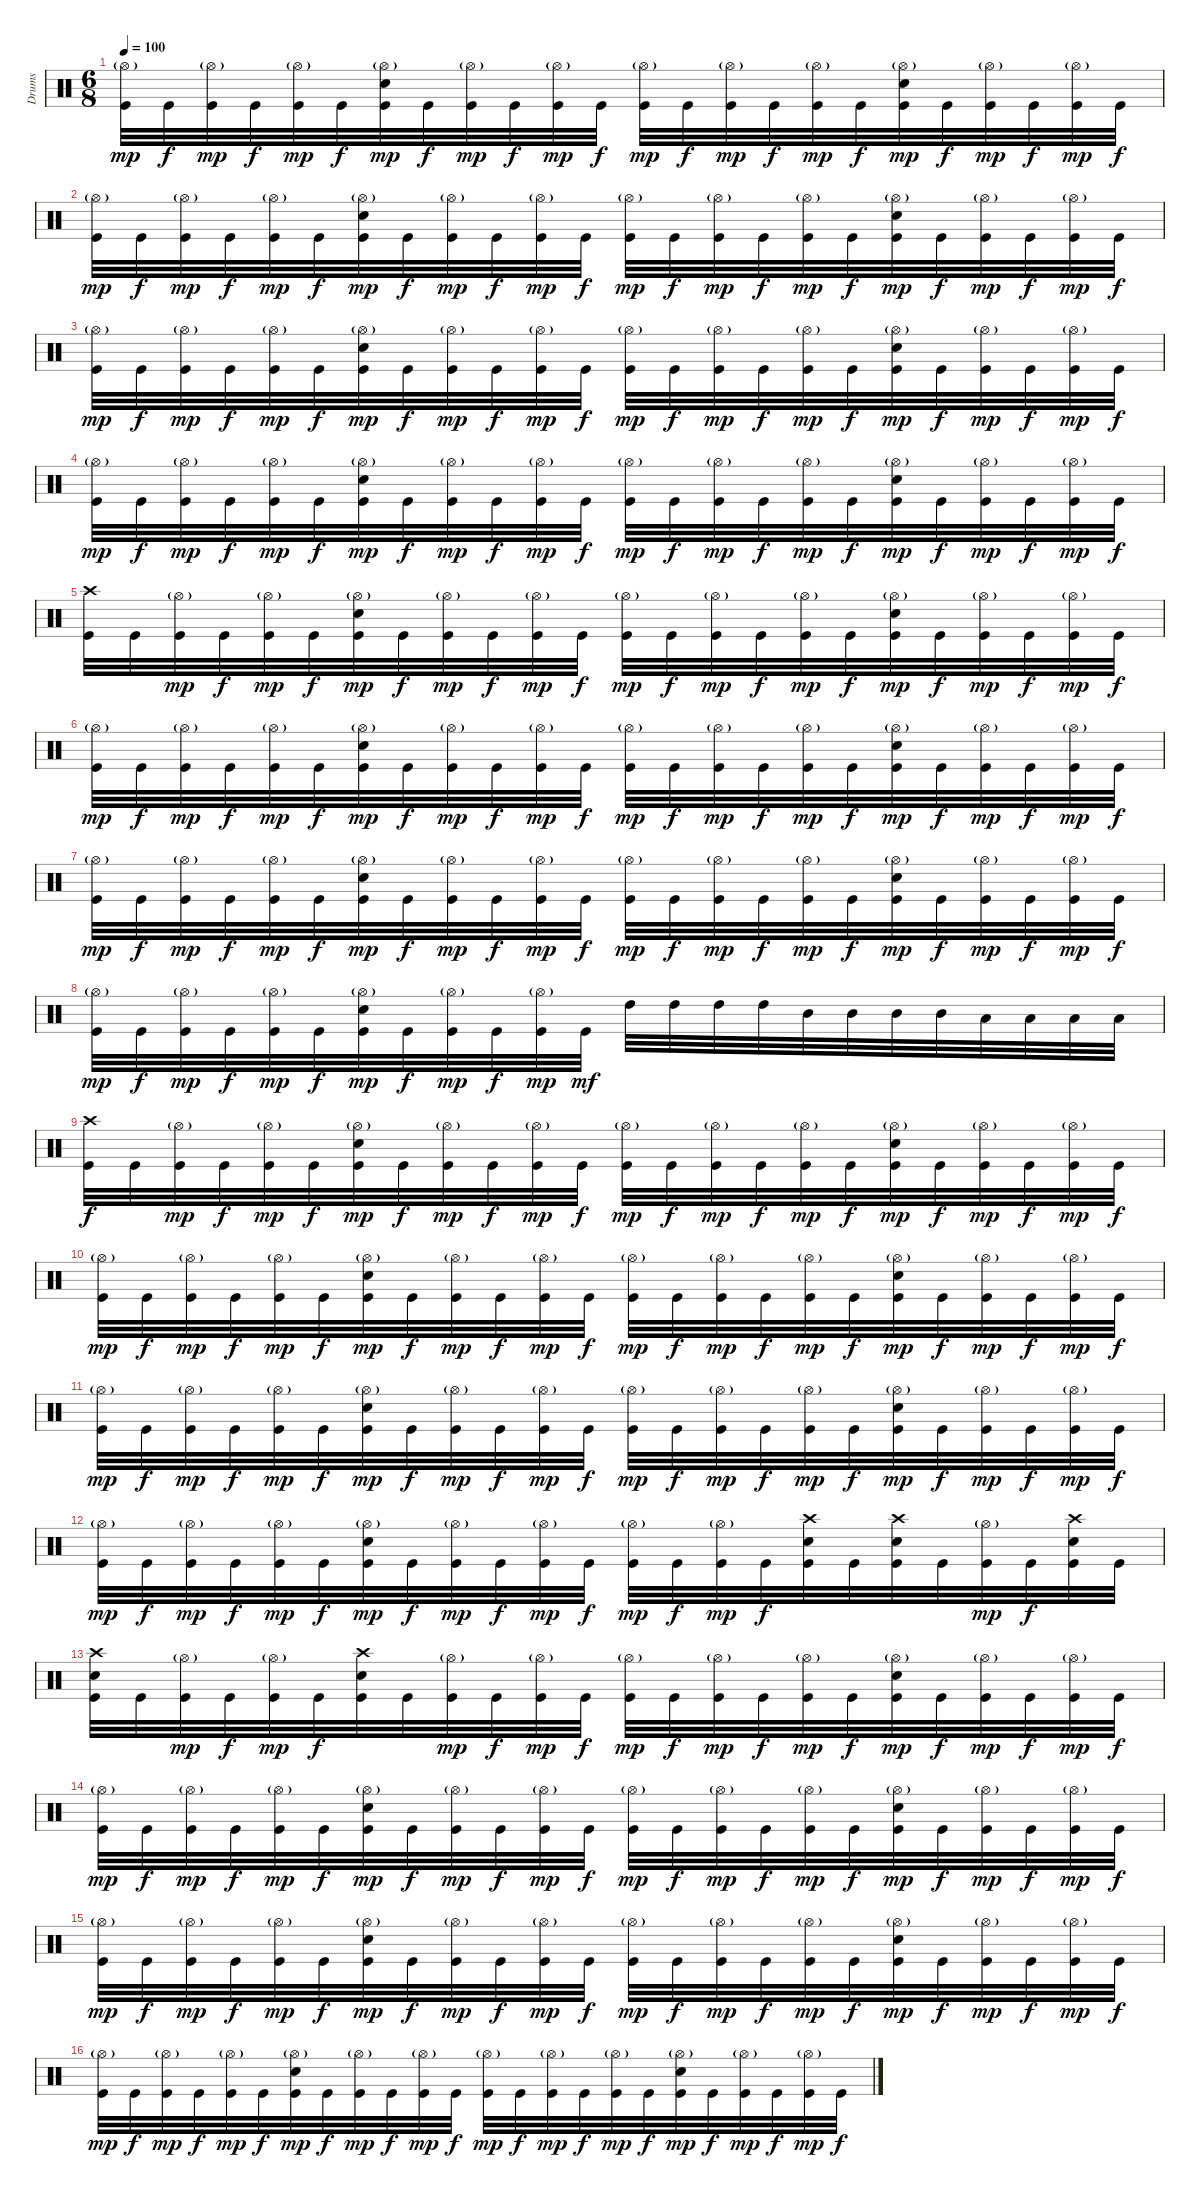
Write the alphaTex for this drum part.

\track ("Drums" "Drums") {instrument percussion}
\staff {score}
\articulation defaults
\ts (6 8)
\tempo 100
\clef neutral
\ks c
("Hi-Hat (open)"{g} "Kick (hit)").32{dy mp volume 13} "Kick (hit)".32{dy f} ("Hi-Hat (open)"{g} "Kick (hit)").32{dy mp} "Kick (hit)".32{dy f} ("Hi-Hat (open)"{g} "Kick (hit)").32{dy mp} "Kick (hit)".32{dy f} ("Hi-Hat (open)"{g} "Electric Snare (hit)" "Kick (hit)").32{dy mp} "Kick (hit)".32{dy f} ("Hi-Hat (open)"{g} "Kick (hit)").32{dy mp} "Kick (hit)".32{dy f} ("Hi-Hat (open)"{g} "Kick (hit)").32{dy mp} "Kick (hit)".32{dy f} ("Hi-Hat (open)"{g} "Kick (hit)").32{dy mp} "Kick (hit)".32{dy f} ("Hi-Hat (open)"{g} "Kick (hit)").32{dy mp} "Kick (hit)".32{dy f} ("Hi-Hat (open)"{g} "Kick (hit)").32{dy mp} "Kick (hit)".32{dy f} ("Hi-Hat (open)"{g} "Electric Snare (hit)" "Kick (hit)").32{dy mp} "Kick (hit)".32{dy f} ("Hi-Hat (open)"{g} "Kick (hit)").32{dy mp} "Kick (hit)".32{dy f} ("Hi-Hat (open)"{g} "Kick (hit)").32{dy mp} "Kick (hit)".32{dy f} |
("Hi-Hat (open)"{g} "Kick (hit)").32{dy mp} "Kick (hit)".32{dy f} ("Hi-Hat (open)"{g} "Kick (hit)").32{dy mp} "Kick (hit)".32{dy f} ("Hi-Hat (open)"{g} "Kick (hit)").32{dy mp} "Kick (hit)".32{dy f} ("Hi-Hat (open)"{g} "Electric Snare (hit)" "Kick (hit)").32{dy mp} "Kick (hit)".32{dy f} ("Hi-Hat (open)"{g} "Kick (hit)").32{dy mp} "Kick (hit)".32{dy f} ("Hi-Hat (open)"{g} "Kick (hit)").32{dy mp} "Kick (hit)".32{dy f} ("Hi-Hat (open)"{g} "Kick (hit)").32{dy mp} "Kick (hit)".32{dy f} ("Hi-Hat (open)"{g} "Kick (hit)").32{dy mp} "Kick (hit)".32{dy f} ("Hi-Hat (open)"{g} "Kick (hit)").32{dy mp} "Kick (hit)".32{dy f} ("Hi-Hat (open)"{g} "Electric Snare (hit)" "Kick (hit)").32{dy mp} "Kick (hit)".32{dy f} ("Hi-Hat (open)"{g} "Kick (hit)").32{dy mp} "Kick (hit)".32{dy f} ("Hi-Hat (open)"{g} "Kick (hit)").32{dy mp} "Kick (hit)".32{dy f} |
("Hi-Hat (open)"{g} "Kick (hit)").32{dy mp} "Kick (hit)".32{dy f} ("Hi-Hat (open)"{g} "Kick (hit)").32{dy mp} "Kick (hit)".32{dy f} ("Hi-Hat (open)"{g} "Kick (hit)").32{dy mp} "Kick (hit)".32{dy f} ("Hi-Hat (open)"{g} "Electric Snare (hit)" "Kick (hit)").32{dy mp} "Kick (hit)".32{dy f} ("Hi-Hat (open)"{g} "Kick (hit)").32{dy mp} "Kick (hit)".32{dy f} ("Hi-Hat (open)"{g} "Kick (hit)").32{dy mp} "Kick (hit)".32{dy f} ("Hi-Hat (open)"{g} "Kick (hit)").32{dy mp} "Kick (hit)".32{dy f} ("Hi-Hat (open)"{g} "Kick (hit)").32{dy mp} "Kick (hit)".32{dy f} ("Hi-Hat (open)"{g} "Kick (hit)").32{dy mp} "Kick (hit)".32{dy f} ("Hi-Hat (open)"{g} "Electric Snare (hit)" "Kick (hit)").32{dy mp} "Kick (hit)".32{dy f} ("Hi-Hat (open)"{g} "Kick (hit)").32{dy mp} "Kick (hit)".32{dy f} ("Hi-Hat (open)"{g} "Kick (hit)").32{dy mp} "Kick (hit)".32{dy f} |
("Hi-Hat (open)"{g} "Kick (hit)").32{dy mp} "Kick (hit)".32{dy f} ("Hi-Hat (open)"{g} "Kick (hit)").32{dy mp} "Kick (hit)".32{dy f} ("Hi-Hat (open)"{g} "Kick (hit)").32{dy mp} "Kick (hit)".32{dy f} ("Hi-Hat (open)"{g} "Electric Snare (hit)" "Kick (hit)").32{dy mp} "Kick (hit)".32{dy f} ("Hi-Hat (open)"{g} "Kick (hit)").32{dy mp} "Kick (hit)".32{dy f} ("Hi-Hat (open)"{g} "Kick (hit)").32{dy mp} "Kick (hit)".32{dy f} ("Hi-Hat (open)"{g} "Kick (hit)").32{dy mp} "Kick (hit)".32{dy f} ("Hi-Hat (open)"{g} "Kick (hit)").32{dy mp} "Kick (hit)".32{dy f} ("Hi-Hat (open)"{g} "Kick (hit)").32{dy mp} "Kick (hit)".32{dy f} ("Hi-Hat (open)"{g} "Electric Snare (hit)" "Kick (hit)").32{dy mp} "Kick (hit)".32{dy f} ("Hi-Hat (open)"{g} "Kick (hit)").32{dy mp} "Kick (hit)".32{dy f} ("Hi-Hat (open)"{g} "Kick (hit)").32{dy mp} "Kick (hit)".32{dy f} |
("Crash high (hit)" "Kick (hit)").32 "Kick (hit)".32 ("Hi-Hat (open)"{g} "Kick (hit)").32{dy mp} "Kick (hit)".32{dy f} ("Hi-Hat (open)"{g} "Kick (hit)").32{dy mp} "Kick (hit)".32{dy f} ("Hi-Hat (open)"{g} "Electric Snare (hit)" "Kick (hit)").32{dy mp} "Kick (hit)".32{dy f} ("Hi-Hat (open)"{g} "Kick (hit)").32{dy mp} "Kick (hit)".32{dy f} ("Hi-Hat (open)"{g} "Kick (hit)").32{dy mp} "Kick (hit)".32{dy f} ("Hi-Hat (open)"{g} "Kick (hit)").32{dy mp} "Kick (hit)".32{dy f} ("Hi-Hat (open)"{g} "Kick (hit)").32{dy mp} "Kick (hit)".32{dy f} ("Hi-Hat (open)"{g} "Kick (hit)").32{dy mp} "Kick (hit)".32{dy f} ("Hi-Hat (open)"{g} "Electric Snare (hit)" "Kick (hit)").32{dy mp} "Kick (hit)".32{dy f} ("Hi-Hat (open)"{g} "Kick (hit)").32{dy mp} "Kick (hit)".32{dy f} ("Hi-Hat (open)"{g} "Kick (hit)").32{dy mp} "Kick (hit)".32{dy f} |
("Hi-Hat (open)"{g} "Kick (hit)").32{dy mp} "Kick (hit)".32{dy f} ("Hi-Hat (open)"{g} "Kick (hit)").32{dy mp} "Kick (hit)".32{dy f} ("Hi-Hat (open)"{g} "Kick (hit)").32{dy mp} "Kick (hit)".32{dy f} ("Hi-Hat (open)"{g} "Electric Snare (hit)" "Kick (hit)").32{dy mp} "Kick (hit)".32{dy f} ("Hi-Hat (open)"{g} "Kick (hit)").32{dy mp} "Kick (hit)".32{dy f} ("Hi-Hat (open)"{g} "Kick (hit)").32{dy mp} "Kick (hit)".32{dy f} ("Hi-Hat (open)"{g} "Kick (hit)").32{dy mp} "Kick (hit)".32{dy f} ("Hi-Hat (open)"{g} "Kick (hit)").32{dy mp} "Kick (hit)".32{dy f} ("Hi-Hat (open)"{g} "Kick (hit)").32{dy mp} "Kick (hit)".32{dy f} ("Hi-Hat (open)"{g} "Electric Snare (hit)" "Kick (hit)").32{dy mp} "Kick (hit)".32{dy f} ("Hi-Hat (open)"{g} "Kick (hit)").32{dy mp} "Kick (hit)".32{dy f} ("Hi-Hat (open)"{g} "Kick (hit)").32{dy mp} "Kick (hit)".32{dy f} |
("Hi-Hat (open)"{g} "Kick (hit)").32{dy mp} "Kick (hit)".32{dy f} ("Hi-Hat (open)"{g} "Kick (hit)").32{dy mp} "Kick (hit)".32{dy f} ("Hi-Hat (open)"{g} "Kick (hit)").32{dy mp} "Kick (hit)".32{dy f} ("Hi-Hat (open)"{g} "Electric Snare (hit)" "Kick (hit)").32{dy mp} "Kick (hit)".32{dy f} ("Hi-Hat (open)"{g} "Kick (hit)").32{dy mp} "Kick (hit)".32{dy f} ("Hi-Hat (open)"{g} "Kick (hit)").32{dy mp} "Kick (hit)".32{dy f} ("Hi-Hat (open)"{g} "Kick (hit)").32{dy mp} "Kick (hit)".32{dy f} ("Hi-Hat (open)"{g} "Kick (hit)").32{dy mp} "Kick (hit)".32{dy f} ("Hi-Hat (open)"{g} "Kick (hit)").32{dy mp} "Kick (hit)".32{dy f} ("Hi-Hat (open)"{g} "Electric Snare (hit)" "Kick (hit)").32{dy mp} "Kick (hit)".32{dy f} ("Hi-Hat (open)"{g} "Kick (hit)").32{dy mp} "Kick (hit)".32{dy f} ("Hi-Hat (open)"{g} "Kick (hit)").32{dy mp} "Kick (hit)".32{dy f} |
("Hi-Hat (open)"{g} "Kick (hit)").32{dy mp} "Kick (hit)".32{dy f} ("Hi-Hat (open)"{g} "Kick (hit)").32{dy mp} "Kick (hit)".32{dy f} ("Hi-Hat (open)"{g} "Kick (hit)").32{dy mp} "Kick (hit)".32{dy f} ("Hi-Hat (open)"{g} "Electric Snare (hit)" "Kick (hit)").32{dy mp} "Kick (hit)".32{dy f} ("Hi-Hat (open)"{g} "Kick (hit)").32{dy mp} "Kick (hit)".32{dy f} ("Hi-Hat (open)"{g} "Kick (hit)").32{dy mp} "Kick (hit)".32{dy mf} "High Tom (hit)".32 "High Tom (hit)".32 "High Tom (hit)".32 "High Tom (hit)".32 "Mid Tom (hit)".32 "Mid Tom (hit)".32 "Mid Tom (hit)".32 "Mid Tom (hit)".32 "Low Tom (hit)".32 "Low Tom (hit)".32 "Low Tom (hit)".32 "Low Tom (hit)".32 |
("Crash high (hit)" "Kick (hit)").32{dy f} "Kick (hit)".32 ("Hi-Hat (open)"{g} "Kick (hit)").32{dy mp} "Kick (hit)".32{dy f} ("Hi-Hat (open)"{g} "Kick (hit)").32{dy mp} "Kick (hit)".32{dy f} ("Hi-Hat (open)"{g} "Electric Snare (hit)" "Kick (hit)").32{dy mp} "Kick (hit)".32{dy f} ("Hi-Hat (open)"{g} "Kick (hit)").32{dy mp} "Kick (hit)".32{dy f} ("Hi-Hat (open)"{g} "Kick (hit)").32{dy mp} "Kick (hit)".32{dy f} ("Hi-Hat (open)"{g} "Kick (hit)").32{dy mp} "Kick (hit)".32{dy f} ("Hi-Hat (open)"{g} "Kick (hit)").32{dy mp} "Kick (hit)".32{dy f} ("Hi-Hat (open)"{g} "Kick (hit)").32{dy mp} "Kick (hit)".32{dy f} ("Hi-Hat (open)"{g} "Electric Snare (hit)" "Kick (hit)").32{dy mp} "Kick (hit)".32{dy f} ("Hi-Hat (open)"{g} "Kick (hit)").32{dy mp} "Kick (hit)".32{dy f} ("Hi-Hat (open)"{g} "Kick (hit)").32{dy mp} "Kick (hit)".32{dy f} |
("Hi-Hat (open)"{g} "Kick (hit)").32{dy mp} "Kick (hit)".32{dy f} ("Hi-Hat (open)"{g} "Kick (hit)").32{dy mp} "Kick (hit)".32{dy f} ("Hi-Hat (open)"{g} "Kick (hit)").32{dy mp} "Kick (hit)".32{dy f} ("Hi-Hat (open)"{g} "Electric Snare (hit)" "Kick (hit)").32{dy mp} "Kick (hit)".32{dy f} ("Hi-Hat (open)"{g} "Kick (hit)").32{dy mp} "Kick (hit)".32{dy f} ("Hi-Hat (open)"{g} "Kick (hit)").32{dy mp} "Kick (hit)".32{dy f} ("Hi-Hat (open)"{g} "Kick (hit)").32{dy mp} "Kick (hit)".32{dy f} ("Hi-Hat (open)"{g} "Kick (hit)").32{dy mp} "Kick (hit)".32{dy f} ("Hi-Hat (open)"{g} "Kick (hit)").32{dy mp} "Kick (hit)".32{dy f} ("Hi-Hat (open)"{g} "Electric Snare (hit)" "Kick (hit)").32{dy mp} "Kick (hit)".32{dy f} ("Hi-Hat (open)"{g} "Kick (hit)").32{dy mp} "Kick (hit)".32{dy f} ("Hi-Hat (open)"{g} "Kick (hit)").32{dy mp} "Kick (hit)".32{dy f} |
("Hi-Hat (open)"{g} "Kick (hit)").32{dy mp} "Kick (hit)".32{dy f} ("Hi-Hat (open)"{g} "Kick (hit)").32{dy mp} "Kick (hit)".32{dy f} ("Hi-Hat (open)"{g} "Kick (hit)").32{dy mp} "Kick (hit)".32{dy f} ("Hi-Hat (open)"{g} "Electric Snare (hit)" "Kick (hit)").32{dy mp} "Kick (hit)".32{dy f} ("Hi-Hat (open)"{g} "Kick (hit)").32{dy mp} "Kick (hit)".32{dy f} ("Hi-Hat (open)"{g} "Kick (hit)").32{dy mp} "Kick (hit)".32{dy f} ("Hi-Hat (open)"{g} "Kick (hit)").32{dy mp} "Kick (hit)".32{dy f} ("Hi-Hat (open)"{g} "Kick (hit)").32{dy mp} "Kick (hit)".32{dy f} ("Hi-Hat (open)"{g} "Kick (hit)").32{dy mp} "Kick (hit)".32{dy f} ("Hi-Hat (open)"{g} "Electric Snare (hit)" "Kick (hit)").32{dy mp} "Kick (hit)".32{dy f} ("Hi-Hat (open)"{g} "Kick (hit)").32{dy mp} "Kick (hit)".32{dy f} ("Hi-Hat (open)"{g} "Kick (hit)").32{dy mp} "Kick (hit)".32{dy f} |
("Hi-Hat (open)"{g} "Kick (hit)").32{dy mp} "Kick (hit)".32{dy f} ("Hi-Hat (open)"{g} "Kick (hit)").32{dy mp} "Kick (hit)".32{dy f} ("Hi-Hat (open)"{g} "Kick (hit)").32{dy mp} "Kick (hit)".32{dy f} ("Hi-Hat (open)"{g} "Electric Snare (hit)" "Kick (hit)").32{dy mp} "Kick (hit)".32{dy f} ("Hi-Hat (open)"{g} "Kick (hit)").32{dy mp} "Kick (hit)".32{dy f} ("Hi-Hat (open)"{g} "Kick (hit)").32{dy mp} "Kick (hit)".32{dy f} ("Hi-Hat (open)"{g} "Kick (hit)").32{dy mp} "Kick (hit)".32{dy f} ("Hi-Hat (open)"{g} "Kick (hit)").32{dy mp} "Kick (hit)".32{dy f} ("Crash high (hit)" "Electric Snare (hit)" "Kick (hit)").32 "Kick (hit)".32 ("Crash high (hit)" "Electric Snare (hit)" "Kick (hit)").32 "Kick (hit)".32 ("Hi-Hat (open)"{g} "Kick (hit)").32{dy mp} "Kick (hit)".32{dy f} ("Crash high (hit)" "Electric Snare (hit)" "Kick (hit)").32 "Kick (hit)".32 |
("Crash high (hit)" "Electric Snare (hit)" "Kick (hit)").32 "Kick (hit)".32 ("Hi-Hat (open)"{g} "Kick (hit)").32{dy mp} "Kick (hit)".32{dy f} ("Hi-Hat (open)"{g} "Kick (hit)").32{dy mp} "Kick (hit)".32{dy f} ("Crash high (hit)" "Electric Snare (hit)" "Kick (hit)").32 "Kick (hit)".32 ("Hi-Hat (open)"{g} "Kick (hit)").32{dy mp} "Kick (hit)".32{dy f} ("Hi-Hat (open)"{g} "Kick (hit)").32{dy mp} "Kick (hit)".32{dy f} ("Hi-Hat (open)"{g} "Kick (hit)").32{dy mp} "Kick (hit)".32{dy f} ("Hi-Hat (open)"{g} "Kick (hit)").32{dy mp} "Kick (hit)".32{dy f} ("Hi-Hat (open)"{g} "Kick (hit)").32{dy mp} "Kick (hit)".32{dy f} ("Hi-Hat (open)"{g} "Electric Snare (hit)" "Kick (hit)").32{dy mp} "Kick (hit)".32{dy f} ("Hi-Hat (open)"{g} "Kick (hit)").32{dy mp} "Kick (hit)".32{dy f} ("Hi-Hat (open)"{g} "Kick (hit)").32{dy mp} "Kick (hit)".32{dy f} |
("Hi-Hat (open)"{g} "Kick (hit)").32{dy mp} "Kick (hit)".32{dy f} ("Hi-Hat (open)"{g} "Kick (hit)").32{dy mp} "Kick (hit)".32{dy f} ("Hi-Hat (open)"{g} "Kick (hit)").32{dy mp} "Kick (hit)".32{dy f} ("Hi-Hat (open)"{g} "Electric Snare (hit)" "Kick (hit)").32{dy mp} "Kick (hit)".32{dy f} ("Hi-Hat (open)"{g} "Kick (hit)").32{dy mp} "Kick (hit)".32{dy f} ("Hi-Hat (open)"{g} "Kick (hit)").32{dy mp} "Kick (hit)".32{dy f} ("Hi-Hat (open)"{g} "Kick (hit)").32{dy mp} "Kick (hit)".32{dy f} ("Hi-Hat (open)"{g} "Kick (hit)").32{dy mp} "Kick (hit)".32{dy f} ("Hi-Hat (open)"{g} "Kick (hit)").32{dy mp} "Kick (hit)".32{dy f} ("Hi-Hat (open)"{g} "Electric Snare (hit)" "Kick (hit)").32{dy mp} "Kick (hit)".32{dy f} ("Hi-Hat (open)"{g} "Kick (hit)").32{dy mp} "Kick (hit)".32{dy f} ("Hi-Hat (open)"{g} "Kick (hit)").32{dy mp} "Kick (hit)".32{dy f} |
("Hi-Hat (open)"{g} "Kick (hit)").32{dy mp} "Kick (hit)".32{dy f} ("Hi-Hat (open)"{g} "Kick (hit)").32{dy mp} "Kick (hit)".32{dy f} ("Hi-Hat (open)"{g} "Kick (hit)").32{dy mp} "Kick (hit)".32{dy f} ("Hi-Hat (open)"{g} "Electric Snare (hit)" "Kick (hit)").32{dy mp} "Kick (hit)".32{dy f} ("Hi-Hat (open)"{g} "Kick (hit)").32{dy mp} "Kick (hit)".32{dy f} ("Hi-Hat (open)"{g} "Kick (hit)").32{dy mp} "Kick (hit)".32{dy f} ("Hi-Hat (open)"{g} "Kick (hit)").32{dy mp} "Kick (hit)".32{dy f} ("Hi-Hat (open)"{g} "Kick (hit)").32{dy mp} "Kick (hit)".32{dy f} ("Hi-Hat (open)"{g} "Kick (hit)").32{dy mp} "Kick (hit)".32{dy f} ("Hi-Hat (open)"{g} "Electric Snare (hit)" "Kick (hit)").32{dy mp} "Kick (hit)".32{dy f} ("Hi-Hat (open)"{g} "Kick (hit)").32{dy mp} "Kick (hit)".32{dy f} ("Hi-Hat (open)"{g} "Kick (hit)").32{dy mp} "Kick (hit)".32{dy f} |
("Hi-Hat (open)"{g} "Kick (hit)").32{dy mp} "Kick (hit)".32{dy f} ("Hi-Hat (open)"{g} "Kick (hit)").32{dy mp} "Kick (hit)".32{dy f} ("Hi-Hat (open)"{g} "Kick (hit)").32{dy mp} "Kick (hit)".32{dy f} ("Hi-Hat (open)"{g} "Electric Snare (hit)" "Kick (hit)").32{dy mp} "Kick (hit)".32{dy f} ("Hi-Hat (open)"{g} "Kick (hit)").32{dy mp} "Kick (hit)".32{dy f} ("Hi-Hat (open)"{g} "Kick (hit)").32{dy mp} "Kick (hit)".32{dy f} ("Hi-Hat (open)"{g} "Kick (hit)").32{dy mp} "Kick (hit)".32{dy f} ("Hi-Hat (open)"{g} "Kick (hit)").32{dy mp} "Kick (hit)".32{dy f} ("Hi-Hat (open)"{g} "Kick (hit)").32{dy mp} "Kick (hit)".32{dy f} ("Hi-Hat (open)"{g} "Electric Snare (hit)" "Kick (hit)").32{dy mp} "Kick (hit)".32{dy f} ("Hi-Hat (open)"{g} "Kick (hit)").32{dy mp} "Kick (hit)".32{dy f} ("Hi-Hat (open)"{g} "Kick (hit)").32{dy mp} "Kick (hit)".32{dy f}
